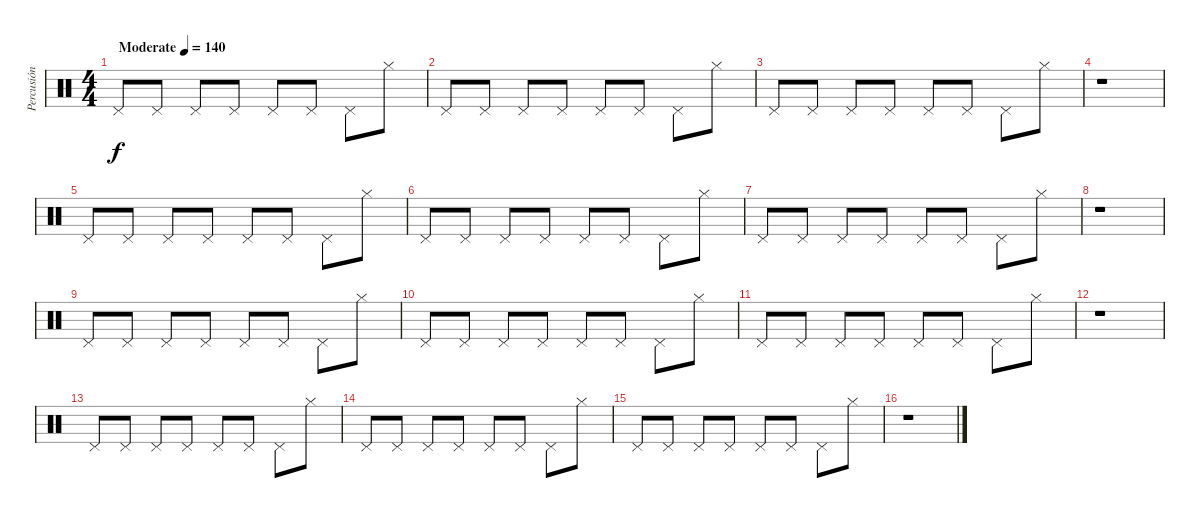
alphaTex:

\track ("Percusión" "Percusión") {instrument percussion}
\staff {score}
\articulation defaults
\ts (4 4)
\tempo (140 "Moderate")
\clef neutral
\ks c "Pedal Hi-Hat (hit)".8{dy f} "Pedal Hi-Hat (hit)".8 "Pedal Hi-Hat (hit)".8 "Pedal Hi-Hat (hit)".8 "Pedal Hi-Hat (hit)".8 "Pedal Hi-Hat (hit)".8 "Pedal Hi-Hat (hit)".8 "Hi-Hat (closed)".8
|
"Pedal Hi-Hat (hit)".8 "Pedal Hi-Hat (hit)".8 "Pedal Hi-Hat (hit)".8 "Pedal Hi-Hat (hit)".8 "Pedal Hi-Hat (hit)".8 "Pedal Hi-Hat (hit)".8 "Pedal Hi-Hat (hit)".8 "Hi-Hat (closed)".8 |
"Pedal Hi-Hat (hit)".8 "Pedal Hi-Hat (hit)".8 "Pedal Hi-Hat (hit)".8 "Pedal Hi-Hat (hit)".8 "Pedal Hi-Hat (hit)".8 "Pedal Hi-Hat (hit)".8 "Pedal Hi-Hat (hit)".8 "Hi-Hat (closed)".8 |
r.1 |
"Pedal Hi-Hat (hit)".8 "Pedal Hi-Hat (hit)".8 "Pedal Hi-Hat (hit)".8 "Pedal Hi-Hat (hit)".8 "Pedal Hi-Hat (hit)".8 "Pedal Hi-Hat (hit)".8 "Pedal Hi-Hat (hit)".8 "Hi-Hat (closed)".8 |
"Pedal Hi-Hat (hit)".8 "Pedal Hi-Hat (hit)".8 "Pedal Hi-Hat (hit)".8 "Pedal Hi-Hat (hit)".8 "Pedal Hi-Hat (hit)".8 "Pedal Hi-Hat (hit)".8 "Pedal Hi-Hat (hit)".8 "Hi-Hat (closed)".8 |
"Pedal Hi-Hat (hit)".8 "Pedal Hi-Hat (hit)".8 "Pedal Hi-Hat (hit)".8 "Pedal Hi-Hat (hit)".8 "Pedal Hi-Hat (hit)".8 "Pedal Hi-Hat (hit)".8 "Pedal Hi-Hat (hit)".8 "Hi-Hat (closed)".8 |
r.1 |
"Pedal Hi-Hat (hit)".8 "Pedal Hi-Hat (hit)".8 "Pedal Hi-Hat (hit)".8 "Pedal Hi-Hat (hit)".8 "Pedal Hi-Hat (hit)".8 "Pedal Hi-Hat (hit)".8 "Pedal Hi-Hat (hit)".8 "Hi-Hat (closed)".8 |
"Pedal Hi-Hat (hit)".8 "Pedal Hi-Hat (hit)".8 "Pedal Hi-Hat (hit)".8 "Pedal Hi-Hat (hit)".8 "Pedal Hi-Hat (hit)".8 "Pedal Hi-Hat (hit)".8 "Pedal Hi-Hat (hit)".8 "Hi-Hat (closed)".8 |
"Pedal Hi-Hat (hit)".8 "Pedal Hi-Hat (hit)".8 "Pedal Hi-Hat (hit)".8 "Pedal Hi-Hat (hit)".8 "Pedal Hi-Hat (hit)".8 "Pedal Hi-Hat (hit)".8 "Pedal Hi-Hat (hit)".8 "Hi-Hat (closed)".8 |
r.1 |
"Pedal Hi-Hat (hit)".8 "Pedal Hi-Hat (hit)".8 "Pedal Hi-Hat (hit)".8 "Pedal Hi-Hat (hit)".8 "Pedal Hi-Hat (hit)".8 "Pedal Hi-Hat (hit)".8 "Pedal Hi-Hat (hit)".8 "Hi-Hat (closed)".8 |
"Pedal Hi-Hat (hit)".8 "Pedal Hi-Hat (hit)".8 "Pedal Hi-Hat (hit)".8 "Pedal Hi-Hat (hit)".8 "Pedal Hi-Hat (hit)".8 "Pedal Hi-Hat (hit)".8 "Pedal Hi-Hat (hit)".8 "Hi-Hat (closed)".8 |
"Pedal Hi-Hat (hit)".8 "Pedal Hi-Hat (hit)".8 "Pedal Hi-Hat (hit)".8 "Pedal Hi-Hat (hit)".8 "Pedal Hi-Hat (hit)".8 "Pedal Hi-Hat (hit)".8 "Pedal Hi-Hat (hit)".8 "Hi-Hat (closed)".8 |
r.1
